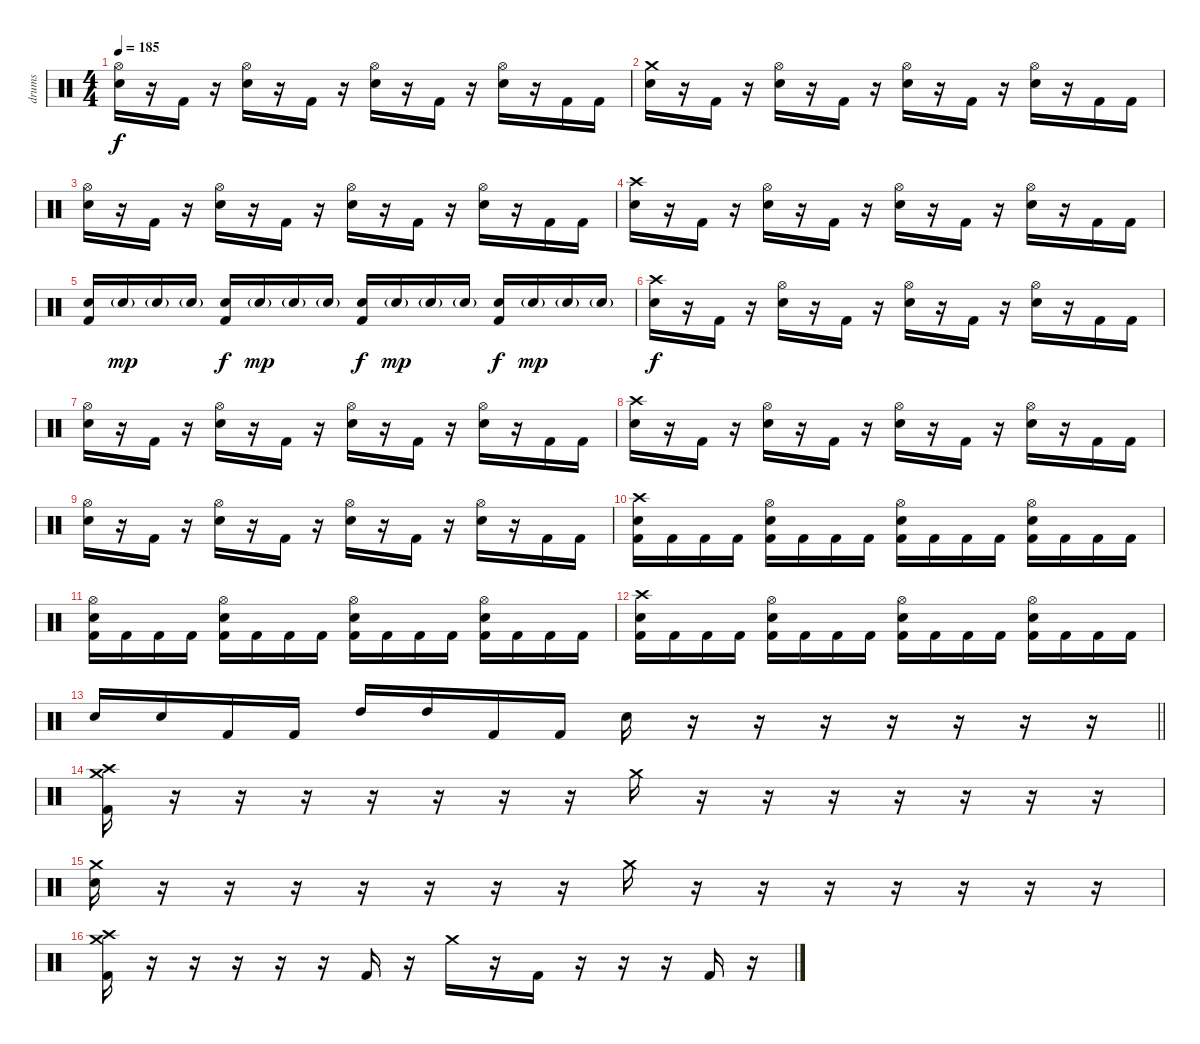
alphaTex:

\track ("drums" "drums") {instrument percussion}
\staff {score}
\articulation defaults
\ts (4 4)
\tempo 185
\clef neutral
\ks c
("Hi-Hat (open)" "Electric Snare (hit)").16{dy f} r.16 "Kick (hit) 2".16 r.16 ("Hi-Hat (open)" "Electric Snare (hit)").16 r.16 "Kick (hit) 2".16 r.16 ("Hi-Hat (open)" "Electric Snare (hit)").16 r.16 "Kick (hit) 2".16 r.16 ("Hi-Hat (open)" "Electric Snare (hit)").16 r.16 "Kick (hit) 2".16 "Kick (hit) 2".16 |
("Crash medium (hit)" "Electric Snare (hit)").16 r.16 "Kick (hit) 2".16 r.16 ("Hi-Hat (open)" "Electric Snare (hit)").16 r.16 "Kick (hit) 2".16 r.16 ("Hi-Hat (open)" "Electric Snare (hit)").16 r.16 "Kick (hit) 2".16 r.16 ("Hi-Hat (open)" "Electric Snare (hit)").16 r.16 "Kick (hit) 2".16 "Kick (hit) 2".16 |
("Hi-Hat (open)" "Electric Snare (hit)").16 r.16 "Kick (hit) 2".16 r.16 ("Hi-Hat (open)" "Electric Snare (hit)").16 r.16 "Kick (hit) 2".16 r.16 ("Hi-Hat (open)" "Electric Snare (hit)").16 r.16 "Kick (hit) 2".16 r.16 ("Hi-Hat (open)" "Electric Snare (hit)").16 r.16 "Kick (hit) 2".16 "Kick (hit) 2".16 |
("Crash high (hit)" "Electric Snare (hit)").16 r.16 "Kick (hit) 2".16 r.16 ("Hi-Hat (open)" "Electric Snare (hit)").16 r.16 "Kick (hit) 2".16 r.16 ("Hi-Hat (open)" "Electric Snare (hit)").16 r.16 "Kick (hit) 2".16 r.16 ("Hi-Hat (open)" "Electric Snare (hit)").16 r.16 "Kick (hit) 2".16 "Kick (hit) 2".16 |
("Electric Snare (hit)" "Kick (hit) 2").16 "Electric Snare (hit)"{g}.16{dy mp} "Electric Snare (hit)"{g}.16 "Electric Snare (hit)"{g}.16 ("Electric Snare (hit)" "Kick (hit) 2").16{dy f} "Electric Snare (hit)"{g}.16{dy mp} "Electric Snare (hit)"{g}.16 "Electric Snare (hit)"{g}.16 ("Electric Snare (hit)" "Kick (hit) 2").16{dy f} "Electric Snare (hit)"{g}.16{dy mp} "Electric Snare (hit)"{g}.16 "Electric Snare (hit)"{g}.16 ("Electric Snare (hit)" "Kick (hit) 2").16{dy f} "Electric Snare (hit)"{g}.16{dy mp} "Electric Snare (hit)"{g}.16 "Electric Snare (hit)"{g}.16 |
("Crash high (hit)" "Electric Snare (hit)").16{dy f} r.16 "Kick (hit) 2".16 r.16 ("Hi-Hat (open)" "Electric Snare (hit)").16 r.16 "Kick (hit) 2".16 r.16 ("Hi-Hat (open)" "Electric Snare (hit)").16 r.16 "Kick (hit) 2".16 r.16 ("Hi-Hat (open)" "Electric Snare (hit)").16 r.16 "Kick (hit) 2".16 "Kick (hit) 2".16 |
("Hi-Hat (open)" "Electric Snare (hit)").16 r.16 "Kick (hit) 2".16 r.16 ("Hi-Hat (open)" "Electric Snare (hit)").16 r.16 "Kick (hit) 2".16 r.16 ("Hi-Hat (open)" "Electric Snare (hit)").16 r.16 "Kick (hit) 2".16 r.16 ("Hi-Hat (open)" "Electric Snare (hit)").16 r.16 "Kick (hit) 2".16 "Kick (hit) 2".16 |
("Crash high (hit)" "Electric Snare (hit)").16 r.16 "Kick (hit) 2".16 r.16 ("Hi-Hat (open)" "Electric Snare (hit)").16 r.16 "Kick (hit) 2".16 r.16 ("Hi-Hat (open)" "Electric Snare (hit)").16 r.16 "Kick (hit) 2".16 r.16 ("Hi-Hat (open)" "Electric Snare (hit)").16 r.16 "Kick (hit) 2".16 "Kick (hit) 2".16 |
("Hi-Hat (open)" "Electric Snare (hit)").16 r.16 "Kick (hit) 2".16 r.16 ("Hi-Hat (open)" "Electric Snare (hit)").16 r.16 "Kick (hit) 2".16 r.16 ("Hi-Hat (open)" "Electric Snare (hit)").16 r.16 "Kick (hit) 2".16 r.16 ("Hi-Hat (open)" "Electric Snare (hit)").16 r.16 "Kick (hit) 2".16 "Kick (hit) 2".16 |
("Crash high (hit)" "Electric Snare (hit)" "Kick (hit) 2").16 "Kick (hit) 2".16 "Kick (hit) 2".16 "Kick (hit) 2".16 ("Hi-Hat (open)" "Electric Snare (hit)" "Kick (hit) 2").16 "Kick (hit) 2".16 "Kick (hit) 2".16 "Kick (hit) 2".16 ("Hi-Hat (open)" "Electric Snare (hit)" "Kick (hit) 2").16 "Kick (hit) 2".16 "Kick (hit) 2".16 "Kick (hit) 2".16 ("Hi-Hat (open)" "Electric Snare (hit)" "Kick (hit) 2").16 "Kick (hit) 2".16 "Kick (hit) 2".16 "Kick (hit) 2".16 |
("Hi-Hat (open)" "Electric Snare (hit)" "Kick (hit) 2").16 "Kick (hit) 2".16 "Kick (hit) 2".16 "Kick (hit) 2".16 ("Hi-Hat (open)" "Electric Snare (hit)" "Kick (hit) 2").16 "Kick (hit) 2".16 "Kick (hit) 2".16 "Kick (hit) 2".16 ("Hi-Hat (open)" "Electric Snare (hit)" "Kick (hit) 2").16 "Kick (hit) 2".16 "Kick (hit) 2".16 "Kick (hit) 2".16 ("Hi-Hat (open)" "Electric Snare (hit)" "Kick (hit) 2").16 "Kick (hit) 2".16 "Kick (hit) 2".16 "Kick (hit) 2".16 |
("Crash high (hit)" "Electric Snare (hit)" "Kick (hit) 2").16 "Kick (hit) 2".16 "Kick (hit) 2".16 "Kick (hit) 2".16 ("Hi-Hat (open)" "Electric Snare (hit)" "Kick (hit) 2").16 "Kick (hit) 2".16 "Kick (hit) 2".16 "Kick (hit) 2".16 ("Hi-Hat (open)" "Electric Snare (hit)" "Kick (hit) 2").16 "Kick (hit) 2".16 "Kick (hit) 2".16 "Kick (hit) 2".16 ("Hi-Hat (open)" "Electric Snare (hit)" "Kick (hit) 2").16 "Kick (hit) 2".16 "Kick (hit) 2".16 "Kick (hit) 2".16 |
\barLineRight lightlight "Electric Snare (hit)".16 "Electric Snare (hit)".16 "Kick (hit) 2".16 "Kick (hit) 2".16 "High Tom (hit)".16 "High Tom (hit)".16 "Kick (hit) 2".16 "Kick (hit) 2".16 "Electric Snare (hit)".16
r.16 r.16 r.16 r.16 r.16 r.16 r.16 |
("Crash medium (hit)" "Crash high (hit)" "Kick (hit) 2").16 r.16 r.16 r.16 r.16 r.16 r.16 r.16 "Crash medium (hit)".16 r.16 r.16 r.16 r.16 r.16 r.16 r.16 |
("Crash medium (hit)" "Electric Snare (hit)").16 r.16 r.16 r.16 r.16 r.16 r.16 r.16 "Crash medium (hit)".16 r.16 r.16 r.16 r.16 r.16 r.16 r.16 |
("Crash medium (hit)" "Crash high (hit)" "Kick (hit) 2").16 r.16 r.16 r.16 r.16 r.16 "Kick (hit) 2".16 r.16 "Crash medium (hit)".16 r.16 "Kick (hit) 2".16 r.16 r.16 r.16 "Kick (hit) 2".16 r.16
